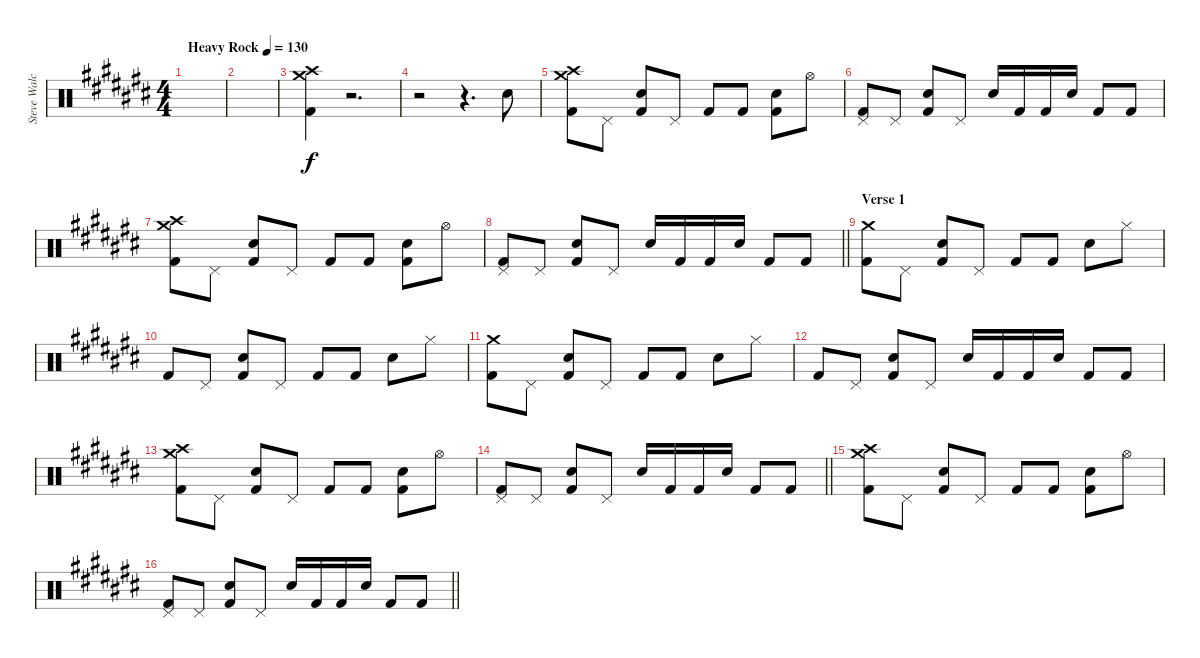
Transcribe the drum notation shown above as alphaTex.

\track ("Steve Walchoz" "Steve Walc") {instrument percussion}
\staff {score}
\articulation defaults
\ts (4 4)
\tempo (130 "Heavy Rock")
\clef neutral
\ks c#
|
|
("Crash medium (hit)" "Crash high (hit)" "Kick (hit) 2").4 r.2{d} |
r.2 r.4{d} "Snare (hit) 2".8 |
("Crash medium (hit)" "Crash high (hit)" "Kick (hit) 2").8 "Pedal Hi-Hat (hit)".8 ("Snare (hit) 2" "Kick (hit) 2").8 "Pedal Hi-Hat (hit)".8 "Kick (hit) 2".8 "Kick (hit) 2".8 ("Snare (hit) 2" "Kick (hit) 2").8 "Hi-Hat (open)".8 |
("Pedal Hi-Hat (hit)" "Kick (hit) 2").8 "Pedal Hi-Hat (hit)".8 ("Snare (hit) 2" "Kick (hit) 2").8 "Pedal Hi-Hat (hit)".8 "Snare (hit) 2".16 "Kick (hit) 2".16 "Kick (hit) 2".16 "Snare (hit) 2".16 "Kick (hit) 2".8 "Kick (hit) 2".8 |
("Crash medium (hit)" "Crash high (hit)" "Kick (hit) 2").8 "Pedal Hi-Hat (hit)".8 ("Snare (hit) 2" "Kick (hit) 2").8 "Pedal Hi-Hat (hit)".8 "Kick (hit) 2".8 "Kick (hit) 2".8 ("Snare (hit) 2" "Kick (hit) 2").8 "Hi-Hat (open)".8 |
\barLineRight lightlight
("Pedal Hi-Hat (hit)" "Kick (hit) 2").8 "Pedal Hi-Hat (hit)".8 ("Snare (hit) 2" "Kick (hit) 2").8 "Pedal Hi-Hat (hit)".8 "Snare (hit) 2".16 "Kick (hit) 2".16 "Kick (hit) 2".16 "Snare (hit) 2".16 "Kick (hit) 2".8 "Kick (hit) 2".8 |
\section ("" "Verse 1")
("Crash medium (hit)" "Kick (hit) 2").8 "Pedal Hi-Hat (hit)".8 ("Snare (hit) 2" "Kick (hit) 2").8 "Pedal Hi-Hat (hit)".8 "Kick (hit) 2".8 "Kick (hit) 2".8 "Snare (hit) 2".8 "Hi-Hat (closed)".8 |
"Kick (hit) 2".8 "Pedal Hi-Hat (hit)".8 ("Snare (hit) 2" "Kick (hit) 2").8 "Pedal Hi-Hat (hit)".8 "Kick (hit) 2".8 "Kick (hit) 2".8 "Snare (hit) 2".8 "Hi-Hat (closed)".8 |
("Crash medium (hit)" "Kick (hit) 2").8 "Pedal Hi-Hat (hit)".8 ("Snare (hit) 2" "Kick (hit) 2").8 "Pedal Hi-Hat (hit)".8 "Kick (hit) 2".8 "Kick (hit) 2".8 "Snare (hit) 2".8 "Hi-Hat (closed)".8 |
"Kick (hit) 2".8 "Pedal Hi-Hat (hit)".8 ("Snare (hit) 2" "Kick (hit) 2").8 "Pedal Hi-Hat (hit)".8 "Snare (hit) 2".16 "Kick (hit) 2".16 "Kick (hit) 2".16 "Snare (hit) 2".16 "Kick (hit) 2".8 "Kick (hit) 2".8 |
("Crash medium (hit)" "Crash high (hit)" "Kick (hit) 2").8 "Pedal Hi-Hat (hit)".8 ("Snare (hit) 2" "Kick (hit) 2").8 "Pedal Hi-Hat (hit)".8 "Kick (hit) 2".8 "Kick (hit) 2".8 ("Snare (hit) 2" "Kick (hit) 2").8 "Hi-Hat (open)".8 |
\barLineRight lightlight
("Pedal Hi-Hat (hit)" "Kick (hit) 2").8 "Pedal Hi-Hat (hit)".8 ("Snare (hit) 2" "Kick (hit) 2").8 "Pedal Hi-Hat (hit)".8 "Snare (hit) 2".16 "Kick (hit) 2".16 "Kick (hit) 2".16 "Snare (hit) 2".16 "Kick (hit) 2".8 "Kick (hit) 2".8 |
("Crash medium (hit)" "Crash high (hit)" "Kick (hit) 2").8 "Pedal Hi-Hat (hit)".8 ("Snare (hit) 2" "Kick (hit) 2").8 "Pedal Hi-Hat (hit)".8 "Kick (hit) 2".8 "Kick (hit) 2".8 ("Snare (hit) 2" "Kick (hit) 2").8 "Hi-Hat (open)".8 |
\barLineRight lightlight
("Pedal Hi-Hat (hit)" "Kick (hit) 2").8 "Pedal Hi-Hat (hit)".8 ("Snare (hit) 2" "Kick (hit) 2").8 "Pedal Hi-Hat (hit)".8 "Snare (hit) 2".16 "Kick (hit) 2".16 "Kick (hit) 2".16 "Snare (hit) 2".16 "Kick (hit) 2".8 "Kick (hit) 2".8
